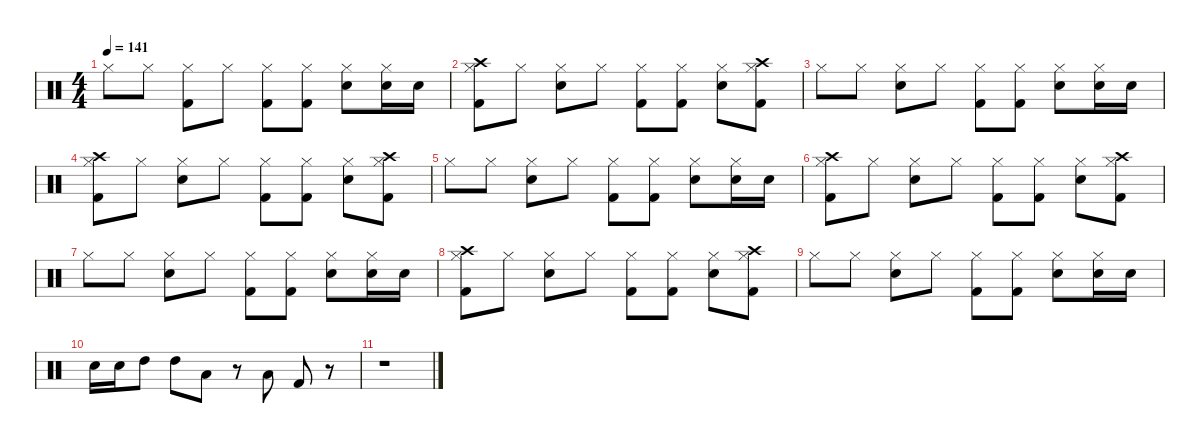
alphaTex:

\defaultSystemsLayout 4
\hideDynamics
\bracketExtendMode nobrackets
\singleTrackTrackNamePolicy hidden
\multiTrackTrackNamePolicy hidden
\otherSystemsTrackNameOrientation horizontal
\track ("Drum" "drm.") {instrument percussion}
\staff {score}
\articulation defaults
\ts (4 4)
\tempo 141
\clef neutral
\ks c "Hi-Hat (closed)".8{dy fff beam Down} "Hi-Hat (closed)".8{dy f beam Down}
("Hi-Hat (closed)" "Kick (hit) 2").8{dy fff beam Down} "Hi-Hat (closed)".8{dy f beam Down} ("Hi-Hat (closed)" "Kick (hit) 2").8{dy fff beam Down} ("Hi-Hat (closed)" "Kick (hit) 2").8{beam Down} ("Hi-Hat (closed)" "Snare (hit) 2").8{beam Down} ("Hi-Hat (closed)" "Snare (hit) 2").16{dy f beam Down} "Snare (hit) 2".16{beam Down} |
("Kick (hit) 2" "Hi-Hat (closed)" "Crash high (hit)").8{dy fff beam Down} "Hi-Hat (closed)".8{dy f beam Down} ("Snare (hit) 2" "Hi-Hat (closed)").8{dy fff beam Down} "Hi-Hat (closed)".8{dy f beam Down} ("Hi-Hat (closed)" "Kick (hit) 2").8{dy fff beam Down} ("Kick (hit) 2" "Hi-Hat (closed)").8{beam Down} ("Snare (hit) 2" "Hi-Hat (closed)").8{beam Down} ("Kick (hit) 2" "Hi-Hat (closed)" "Crash high (hit)").8{beam Down} |
"Hi-Hat (closed)".8{beam Down} "Hi-Hat (closed)".8{dy f beam Down} ("Hi-Hat (closed)" "Snare (hit) 2").8{dy fff beam Down} "Hi-Hat (closed)".8{dy f beam Down} ("Hi-Hat (closed)" "Kick (hit) 2").8{dy fff beam Down} ("Hi-Hat (closed)" "Kick (hit) 2").8{beam Down} ("Hi-Hat (closed)" "Snare (hit) 2").8{beam Down} ("Hi-Hat (closed)" "Snare (hit) 2").16{beam Down} "Snare (hit) 2".16{dy f beam Down} |
("Kick (hit) 2" "Hi-Hat (closed)" "Crash high (hit)").8{dy fff beam Down} "Hi-Hat (closed)".8{dy f beam Down} ("Snare (hit) 2" "Hi-Hat (closed)").8{dy fff beam Down} "Hi-Hat (closed)".8{dy f beam Down} ("Hi-Hat (closed)" "Kick (hit) 2").8{dy fff beam Down} ("Kick (hit) 2" "Hi-Hat (closed)").8{beam Down} ("Snare (hit) 2" "Hi-Hat (closed)").8{beam Down} ("Kick (hit) 2" "Hi-Hat (closed)" "Crash high (hit)").8{beam Down} |
"Hi-Hat (closed)".8{beam Down} "Hi-Hat (closed)".8{dy f beam Down} ("Hi-Hat (closed)" "Snare (hit) 2").8{dy fff beam Down} "Hi-Hat (closed)".8{dy f beam Down} ("Hi-Hat (closed)" "Kick (hit) 2").8{dy fff beam Down} ("Hi-Hat (closed)" "Kick (hit) 2").8{beam Down} ("Hi-Hat (closed)" "Snare (hit) 2").8{beam Down} ("Hi-Hat (closed)" "Snare (hit) 2").16{beam Down} "Snare (hit) 2".16{dy f beam Down} |
("Kick (hit) 2" "Hi-Hat (closed)" "Crash high (hit)").8{dy fff beam Down} "Hi-Hat (closed)".8{dy f beam Down} ("Snare (hit) 2" "Hi-Hat (closed)").8{dy fff beam Down} "Hi-Hat (closed)".8{dy f beam Down} ("Hi-Hat (closed)" "Kick (hit) 2").8{dy fff beam Down} ("Kick (hit) 2" "Hi-Hat (closed)").8{beam Down} ("Snare (hit) 2" "Hi-Hat (closed)").8{beam Down} ("Kick (hit) 2" "Hi-Hat (closed)" "Crash high (hit)").8{beam Down} |
"Hi-Hat (closed)".8{beam Down} "Hi-Hat (closed)".8{dy f beam Down} ("Hi-Hat (closed)" "Snare (hit) 2").8{dy fff beam Down} "Hi-Hat (closed)".8{dy f beam Down} ("Hi-Hat (closed)" "Kick (hit) 2").8{dy fff beam Down} ("Hi-Hat (closed)" "Kick (hit) 2").8{beam Down} ("Hi-Hat (closed)" "Snare (hit) 2").8{beam Down} ("Hi-Hat (closed)" "Snare (hit) 2").16{beam Down} "Snare (hit) 2".16{dy f beam Down} |
("Kick (hit) 2" "Hi-Hat (closed)" "Crash high (hit)").8{dy fff beam Down} "Hi-Hat (closed)".8{dy f beam Down} ("Snare (hit) 2" "Hi-Hat (closed)").8{dy fff beam Down} "Hi-Hat (closed)".8{dy f beam Down} ("Hi-Hat (closed)" "Kick (hit) 2").8{dy fff beam Down} ("Kick (hit) 2" "Hi-Hat (closed)").8{beam Down} ("Snare (hit) 2" "Hi-Hat (closed)").8{beam Down} ("Kick (hit) 2" "Hi-Hat (closed)" "Crash high (hit)").8{beam Down} |
"Hi-Hat (closed)".8{beam Down} "Hi-Hat (closed)".8{dy f beam Down} ("Hi-Hat (closed)" "Snare (hit) 2").8{dy fff beam Down} "Hi-Hat (closed)".8{dy f beam Down} ("Hi-Hat (closed)" "Kick (hit) 2").8{dy fff beam Down} ("Hi-Hat (closed)" "Kick (hit) 2").8{beam Down} ("Hi-Hat (closed)" "Snare (hit) 2").8{beam Down} ("Hi-Hat (closed)" "Snare (hit) 2").16{beam Down} "Snare (hit) 2".16{dy f beam Down} |
"Snare (hit) 2".16{dy fff beam Down} "Snare (hit) 2".16{beam Down} "High Tom (hit)".8{beam Down} "High Tom (hit)".8{beam Down} "Low Tom (hit)".8{beam Down} r.8{beam Down} "Low Floor Tom (hit)".8{beam Up} "Kick (hit) 2".8{beam Up} r.8{beam Up} |
r.1{beam Down}
